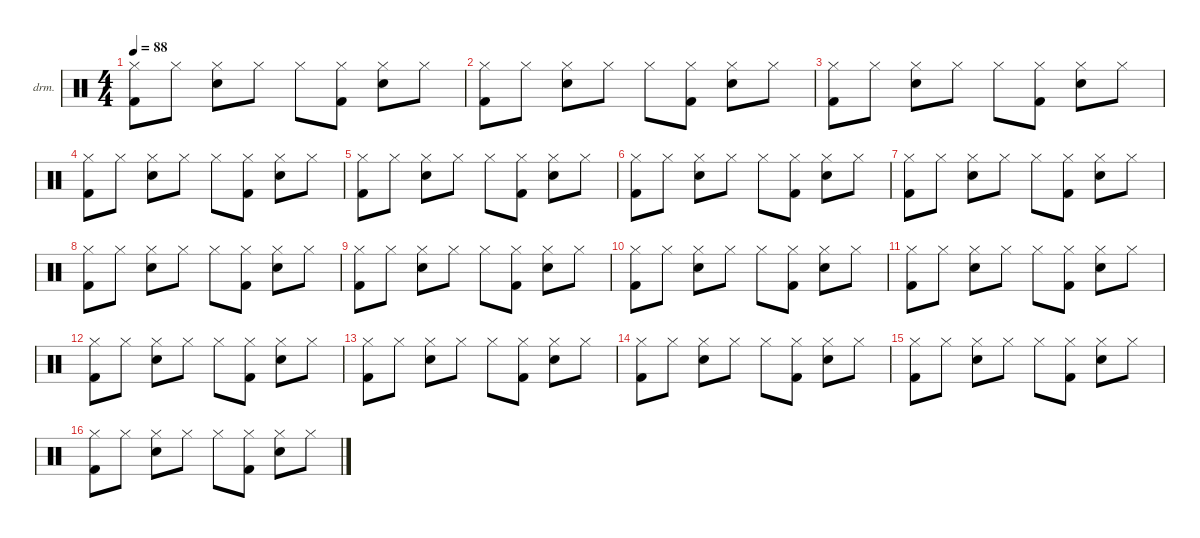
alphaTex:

\defaultSystemsLayout 4
\hideDynamics
\bracketExtendMode nobrackets
\firstSystemTrackNameOrientation horizontal
\otherSystemsTrackNameOrientation horizontal
\track ("Percussie" "drm.") {instrument percussion}
\staff {score}
\articulation defaults
\ts (4 4)
\tempo 88
\clef neutral
\ks c
("Hi-Hat (closed)" "Kick (hit) 2").8{dy f} "Hi-Hat (closed)".8 ("Hi-Hat (closed)" "Snare (hit) 2").8 "Hi-Hat (closed)".8 "Hi-Hat (closed)".8 ("Hi-Hat (closed)" "Kick (hit) 2").8 ("Hi-Hat (closed)" "Snare (hit) 2").8 "Hi-Hat (closed)".8 |
("Hi-Hat (closed)" "Kick (hit) 2").8 "Hi-Hat (closed)".8 ("Hi-Hat (closed)" "Snare (hit) 2").8 "Hi-Hat (closed)".8 "Hi-Hat (closed)".8 ("Hi-Hat (closed)" "Kick (hit) 2").8 ("Hi-Hat (closed)" "Snare (hit) 2").8 "Hi-Hat (closed)".8 |
("Hi-Hat (closed)" "Kick (hit) 2").8 "Hi-Hat (closed)".8 ("Hi-Hat (closed)" "Snare (hit) 2").8 "Hi-Hat (closed)".8 "Hi-Hat (closed)".8 ("Hi-Hat (closed)" "Kick (hit) 2").8 ("Hi-Hat (closed)" "Snare (hit) 2").8 "Hi-Hat (closed)".8 |
("Hi-Hat (closed)" "Kick (hit) 2").8 "Hi-Hat (closed)".8 ("Hi-Hat (closed)" "Snare (hit) 2").8 "Hi-Hat (closed)".8 "Hi-Hat (closed)".8 ("Hi-Hat (closed)" "Kick (hit) 2").8 ("Hi-Hat (closed)" "Snare (hit) 2").8 "Hi-Hat (closed)".8 |
("Hi-Hat (closed)" "Kick (hit) 2").8 "Hi-Hat (closed)".8 ("Hi-Hat (closed)" "Snare (hit) 2").8 "Hi-Hat (closed)".8 "Hi-Hat (closed)".8 ("Hi-Hat (closed)" "Kick (hit) 2").8 ("Hi-Hat (closed)" "Snare (hit) 2").8 "Hi-Hat (closed)".8 |
("Hi-Hat (closed)" "Kick (hit) 2").8 "Hi-Hat (closed)".8 ("Hi-Hat (closed)" "Snare (hit) 2").8 "Hi-Hat (closed)".8 "Hi-Hat (closed)".8 ("Hi-Hat (closed)" "Kick (hit) 2").8 ("Hi-Hat (closed)" "Snare (hit) 2").8 "Hi-Hat (closed)".8 |
("Hi-Hat (closed)" "Kick (hit) 2").8 "Hi-Hat (closed)".8 ("Hi-Hat (closed)" "Snare (hit) 2").8 "Hi-Hat (closed)".8 "Hi-Hat (closed)".8 ("Hi-Hat (closed)" "Kick (hit) 2").8 ("Hi-Hat (closed)" "Snare (hit) 2").8 "Hi-Hat (closed)".8 |
("Hi-Hat (closed)" "Kick (hit) 2").8 "Hi-Hat (closed)".8 ("Hi-Hat (closed)" "Snare (hit) 2").8 "Hi-Hat (closed)".8 "Hi-Hat (closed)".8 ("Hi-Hat (closed)" "Kick (hit) 2").8 ("Hi-Hat (closed)" "Snare (hit) 2").8 "Hi-Hat (closed)".8 |
("Hi-Hat (closed)" "Kick (hit) 2").8 "Hi-Hat (closed)".8 ("Hi-Hat (closed)" "Snare (hit) 2").8 "Hi-Hat (closed)".8 "Hi-Hat (closed)".8 ("Hi-Hat (closed)" "Kick (hit) 2").8 ("Hi-Hat (closed)" "Snare (hit) 2").8 "Hi-Hat (closed)".8 |
("Hi-Hat (closed)" "Kick (hit) 2").8 "Hi-Hat (closed)".8 ("Hi-Hat (closed)" "Snare (hit) 2").8 "Hi-Hat (closed)".8 "Hi-Hat (closed)".8 ("Hi-Hat (closed)" "Kick (hit) 2").8 ("Hi-Hat (closed)" "Snare (hit) 2").8 "Hi-Hat (closed)".8 |
("Hi-Hat (closed)" "Kick (hit) 2").8 "Hi-Hat (closed)".8 ("Hi-Hat (closed)" "Snare (hit) 2").8 "Hi-Hat (closed)".8 "Hi-Hat (closed)".8 ("Hi-Hat (closed)" "Kick (hit) 2").8 ("Hi-Hat (closed)" "Snare (hit) 2").8 "Hi-Hat (closed)".8 |
("Hi-Hat (closed)" "Kick (hit) 2").8 "Hi-Hat (closed)".8 ("Hi-Hat (closed)" "Snare (hit) 2").8 "Hi-Hat (closed)".8 "Hi-Hat (closed)".8 ("Hi-Hat (closed)" "Kick (hit) 2").8 ("Hi-Hat (closed)" "Snare (hit) 2").8 "Hi-Hat (closed)".8 |
("Hi-Hat (closed)" "Kick (hit) 2").8 "Hi-Hat (closed)".8 ("Hi-Hat (closed)" "Snare (hit) 2").8 "Hi-Hat (closed)".8 "Hi-Hat (closed)".8 ("Hi-Hat (closed)" "Kick (hit) 2").8 ("Hi-Hat (closed)" "Snare (hit) 2").8 "Hi-Hat (closed)".8 |
("Hi-Hat (closed)" "Kick (hit) 2").8 "Hi-Hat (closed)".8 ("Hi-Hat (closed)" "Snare (hit) 2").8 "Hi-Hat (closed)".8 "Hi-Hat (closed)".8 ("Hi-Hat (closed)" "Kick (hit) 2").8 ("Hi-Hat (closed)" "Snare (hit) 2").8 "Hi-Hat (closed)".8 |
("Hi-Hat (closed)" "Kick (hit) 2").8 "Hi-Hat (closed)".8 ("Hi-Hat (closed)" "Snare (hit) 2").8 "Hi-Hat (closed)".8 "Hi-Hat (closed)".8 ("Hi-Hat (closed)" "Kick (hit) 2").8 ("Hi-Hat (closed)" "Snare (hit) 2").8 "Hi-Hat (closed)".8 |
("Hi-Hat (closed)" "Kick (hit) 2").8 "Hi-Hat (closed)".8 ("Hi-Hat (closed)" "Snare (hit) 2").8 "Hi-Hat (closed)".8 "Hi-Hat (closed)".8 ("Hi-Hat (closed)" "Kick (hit) 2").8 ("Hi-Hat (closed)" "Snare (hit) 2").8 "Hi-Hat (closed)".8
